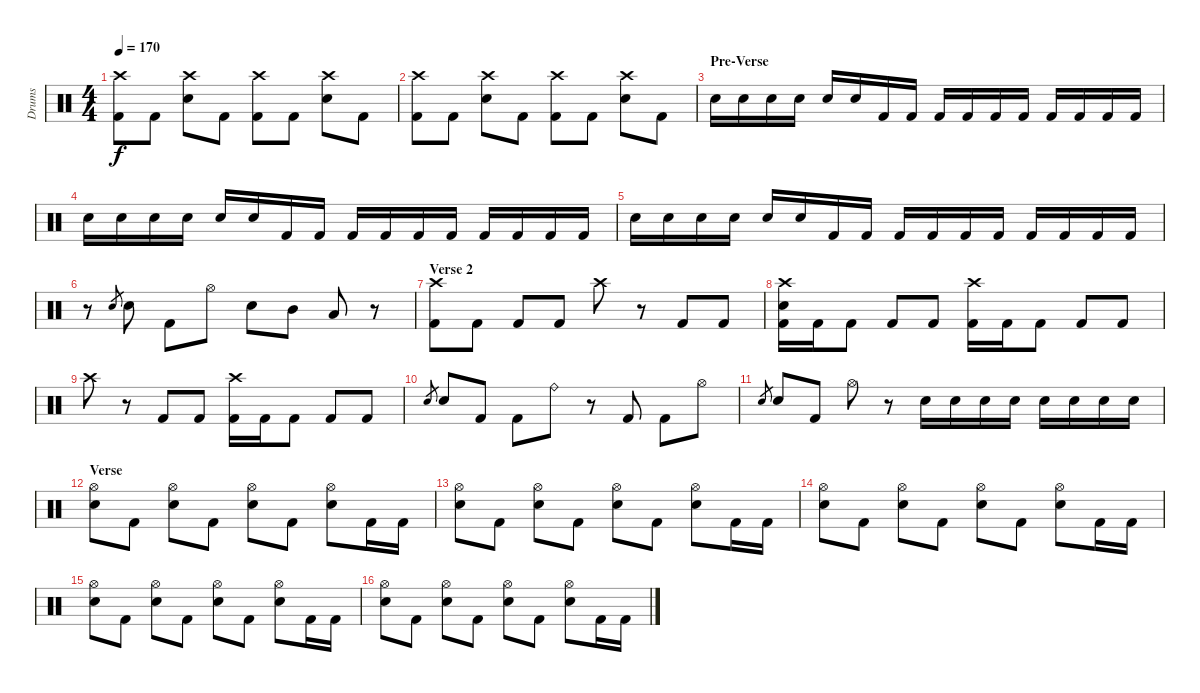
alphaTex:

\track ("Drums" "Drums") {instrument percussion}
\staff {score}
\articulation defaults
\ts (4 4)
\tempo 170
\clef neutral
\ks c
("Crash high (hit)" "Kick (hit) 2").8{dy f} "Kick (hit) 2".8 ("Crash high (hit)" "Electric Snare (hit)").8 "Kick (hit) 2".8 ("Crash high (hit)" "Kick (hit) 2").8 "Kick (hit) 2".8 ("Crash high (hit)" "Electric Snare (hit)").8 "Kick (hit) 2".8 |
("Crash high (hit)" "Kick (hit) 2").8 "Kick (hit) 2".8 ("Crash high (hit)" "Electric Snare (hit)").8 "Kick (hit) 2".8 ("Crash high (hit)" "Kick (hit) 2").8 "Kick (hit) 2".8 ("Crash high (hit)" "Electric Snare (hit)").8 "Kick (hit) 2".8 |
\section ("" "Pre-Verse")
"Electric Snare (hit)".16 "Electric Snare (hit)".16 "Electric Snare (hit)".16 "Electric Snare (hit)".16 "Electric Snare (hit)".16 "Electric Snare (hit)".16 "Kick (hit) 2".16 "Kick (hit) 2".16 "Kick (hit) 2".16 "Kick (hit) 2".16 "Kick (hit) 2".16 "Kick (hit) 2".16 "Kick (hit) 2".16 "Kick (hit) 2".16 "Kick (hit) 2".16 "Kick (hit) 2".16 |
"Electric Snare (hit)".16 "Electric Snare (hit)".16 "Electric Snare (hit)".16 "Electric Snare (hit)".16 "Electric Snare (hit)".16 "Electric Snare (hit)".16 "Kick (hit) 2".16 "Kick (hit) 2".16 "Kick (hit) 2".16 "Kick (hit) 2".16 "Kick (hit) 2".16 "Kick (hit) 2".16 "Kick (hit) 2".16 "Kick (hit) 2".16 "Kick (hit) 2".16 "Kick (hit) 2".16 |
"Electric Snare (hit)".16 "Electric Snare (hit)".16 "Electric Snare (hit)".16 "Electric Snare (hit)".16 "Electric Snare (hit)".16 "Electric Snare (hit)".16 "Kick (hit) 2".16 "Kick (hit) 2".16 "Kick (hit) 2".16 "Kick (hit) 2".16 "Kick (hit) 2".16 "Kick (hit) 2".16 "Kick (hit) 2".16 "Kick (hit) 2".16 "Kick (hit) 2".16 "Kick (hit) 2".16 |
r.8 "Electric Snare (hit)".8{gr} "Electric Snare (hit)".8 "Kick (hit) 2".8 "Hi-Hat (open)".8 "Electric Snare (hit)".8 "Mid Tom (hit)".8 "Low Tom (hit)".8 r.8 |
\section ("" "Verse 2")
("Crash high (hit)" "Kick (hit) 2").8 "Kick (hit) 2".8 "Kick (hit) 2".8 "Kick (hit) 2".8 "Crash high (hit)".8 r.8 "Kick (hit) 2".8 "Kick (hit) 2".8 |
("Crash high (hit)" "Electric Snare (hit)" "Kick (hit) 2").16 "Kick (hit) 2".16 "Kick (hit) 2".8 "Kick (hit) 2".8 "Kick (hit) 2".8 ("Crash high (hit)" "Kick (hit) 2").16 "Kick (hit) 2".16 "Kick (hit) 2".8 "Kick (hit) 2".8 "Kick (hit) 2".8 |
"Crash high (hit)".8 r.8 "Kick (hit) 2".8 "Kick (hit) 2".8 ("Crash high (hit)" "Kick (hit) 2").16 "Kick (hit) 2".16 "Kick (hit) 2".8 "Kick (hit) 2".8 "Kick (hit) 2".8 |
"Electric Snare (hit)".8{gr} "Electric Snare (hit)".8 "Kick (hit) 2".8 "Kick (hit) 2".8 "Ride (bell)".8 r.8 "Kick (hit) 2".8 "Kick (hit) 2".8 "Hi-Hat (open)".8 |
"Electric Snare (hit)".8{gr} "Electric Snare (hit)".8 "Kick (hit) 2".8 "Hi-Hat (open)".8 r.8 "Electric Snare (hit)".16 "Electric Snare (hit)".16 "Electric Snare (hit)".16 "Electric Snare (hit)".16 "Electric Snare (hit)".16 "Electric Snare (hit)".16 "Electric Snare (hit)".16 "Electric Snare (hit)".16 |
\section ("" "Verse")
("Hi-Hat (open)" "Electric Snare (hit)").8 "Kick (hit) 2".8 ("Hi-Hat (open)" "Electric Snare (hit)").8 "Kick (hit) 2".8 ("Hi-Hat (open)" "Electric Snare (hit)").8 "Kick (hit) 2".8 ("Hi-Hat (open)" "Electric Snare (hit)").8 "Kick (hit) 2".16 "Kick (hit) 2".16 |
("Hi-Hat (open)" "Electric Snare (hit)").8 "Kick (hit) 2".8 ("Hi-Hat (open)" "Electric Snare (hit)").8 "Kick (hit) 2".8 ("Hi-Hat (open)" "Electric Snare (hit)").8 "Kick (hit) 2".8 ("Hi-Hat (open)" "Electric Snare (hit)").8 "Kick (hit) 2".16 "Kick (hit) 2".16 |
("Hi-Hat (open)" "Electric Snare (hit)").8 "Kick (hit) 2".8 ("Hi-Hat (open)" "Electric Snare (hit)").8 "Kick (hit) 2".8 ("Hi-Hat (open)" "Electric Snare (hit)").8 "Kick (hit) 2".8 ("Hi-Hat (open)" "Electric Snare (hit)").8 "Kick (hit) 2".16 "Kick (hit) 2".16 |
("Hi-Hat (open)" "Electric Snare (hit)").8 "Kick (hit) 2".8 ("Hi-Hat (open)" "Electric Snare (hit)").8 "Kick (hit) 2".8 ("Hi-Hat (open)" "Electric Snare (hit)").8 "Kick (hit) 2".8 ("Hi-Hat (open)" "Electric Snare (hit)").8 "Kick (hit) 2".16 "Kick (hit) 2".16 |
("Hi-Hat (open)" "Electric Snare (hit)").8 "Kick (hit) 2".8 ("Hi-Hat (open)" "Electric Snare (hit)").8 "Kick (hit) 2".8 ("Hi-Hat (open)" "Electric Snare (hit)").8 "Kick (hit) 2".8 ("Hi-Hat (open)" "Electric Snare (hit)").8 "Kick (hit) 2".16 "Kick (hit) 2".16
